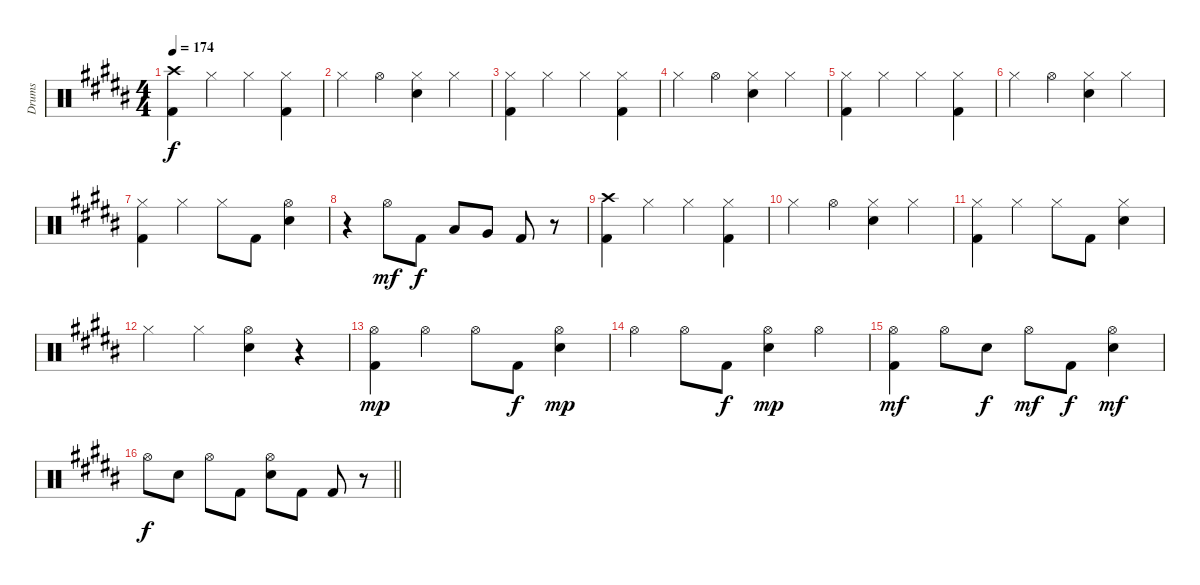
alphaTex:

\track ("Drums" "Drums") {instrument percussion}
\staff {score}
\articulation defaults
\ts (4 4)
\tempo 174
\clef neutral
\ks g#minor
("Crash high (hit)" "Kick (hit) 2").4{dy f} "Hi-Hat (closed)".4 "Hi-Hat (closed)".4 ("Hi-Hat (closed)" "Kick (hit) 2").4 |
"Hi-Hat (closed)".4 "Hi-Hat (open)".4 ("Hi-Hat (closed)" "Electric Snare (hit)").4 "Hi-Hat (closed)".4 |
("Hi-Hat (closed)" "Kick (hit) 2").4 "Hi-Hat (closed)".4 "Hi-Hat (closed)".4 ("Hi-Hat (closed)" "Kick (hit) 2").4 |
"Hi-Hat (closed)".4 "Hi-Hat (open)".4 ("Hi-Hat (closed)" "Electric Snare (hit)").4 "Hi-Hat (closed)".4 |
("Hi-Hat (closed)" "Kick (hit) 2").4 "Hi-Hat (closed)".4 "Hi-Hat (closed)".4 ("Hi-Hat (closed)" "Kick (hit) 2").4 |
"Hi-Hat (closed)".4 "Hi-Hat (open)".4 ("Hi-Hat (closed)" "Electric Snare (hit)").4 "Hi-Hat (closed)".4 |
("Hi-Hat (closed)" "Kick (hit) 2").4 "Hi-Hat (closed)".4 "Hi-Hat (closed)".8 "Kick (hit) 2".8 ("Hi-Hat (open)" "Electric Snare (hit)").4 |
r.4 "Hi-Hat (open)".8{dy mf} "Kick (hit) 2".8{dy f} "Low Tom (hit)".8 "Very Low Tom (hit)".8 "Kick (hit) 2".8 r.8 |
("Crash high (hit)" "Kick (hit) 2").4 "Hi-Hat (closed)".4 "Hi-Hat (closed)".4 ("Hi-Hat (closed)" "Kick (hit) 2").4 |
"Hi-Hat (closed)".4 "Hi-Hat (open)".4 ("Hi-Hat (closed)" "Electric Snare (hit)").4 "Hi-Hat (closed)".4 |
("Hi-Hat (closed)" "Kick (hit) 2").4 "Hi-Hat (closed)".4 "Hi-Hat (closed)".8 "Kick (hit) 2".8 ("Hi-Hat (closed)" "Electric Snare (hit)").4 |
"Hi-Hat (closed)".4 "Hi-Hat (closed)".4 ("Hi-Hat (open)" "Electric Snare (hit)").4 r.4 |
("Hi-Hat (open)" "Kick (hit) 2").4{dy mp} "Hi-Hat (open)".4 "Hi-Hat (open)".8 "Kick (hit) 2".8{dy f} ("Hi-Hat (open)" "Electric Snare (hit)").4{dy mp} |
"Hi-Hat (open)".4 "Hi-Hat (open)".8 "Kick (hit) 2".8{dy f} ("Hi-Hat (open)" "Electric Snare (hit)").4{dy mp} "Hi-Hat (open)".4 |
("Hi-Hat (open)" "Kick (hit) 2").4{dy mf} "Hi-Hat (open)".8 "Electric Snare (hit)".8{dy f} "Hi-Hat (open)".8{dy mf} "Kick (hit) 2".8{dy f} ("Hi-Hat (open)" "Electric Snare (hit)").4{dy mf} |
\barLineRight lightlight "Hi-Hat (open)".8{dy f} "Electric Snare (hit)".8 "Hi-Hat (open)".8 "Kick (hit) 2".8
("Hi-Hat (open)" "Electric Snare (hit)").8 "Kick (hit) 2".8 "Kick (hit) 2".8 r.8
